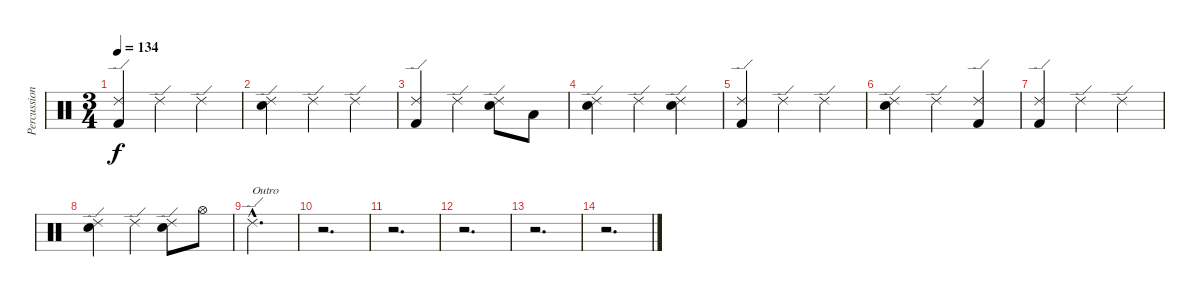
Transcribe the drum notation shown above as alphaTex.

\track ("Percussion" "Percussion") {instrument percussion}
\staff {score}
\articulation defaults
\ts (3 4)
\tempo 134
\clef neutral
\ks c
("Kick (hit) 2" "Ride (edge) 2").4{dy f} "Ride (edge) 2".4 "Ride (edge) 2".4 |
("Snare (hit) 2" "Ride (edge) 2").4 "Ride (edge) 2".4 "Ride (edge) 2".4 |
("Kick (hit) 2" "Ride (edge) 2").4 "Ride (edge) 2".4 ("Snare (hit) 2" "Ride (edge) 2").8 "Low Tom (hit)".8 |
("Snare (hit) 2" "Ride (edge) 2").4 "Ride (edge) 2".4 ("Snare (hit) 2" "Ride (edge) 2").4 |
("Kick (hit) 2" "Ride (edge) 2").4 "Ride (edge) 2".4 "Ride (edge) 2".4 |
("Snare (hit) 2" "Ride (edge) 2").4 "Ride (edge) 2".4 ("Kick (hit) 2" "Ride (edge) 2").4 |
("Kick (hit) 2" "Ride (edge) 2").4 "Ride (edge) 2".4 "Ride (edge) 2".4 |
("Snare (hit) 2" "Ride (edge) 2").4 "Ride (edge) 2".4 ("Snare (hit) 2" "Ride (edge) 2").8 "Hi-Hat (open)".8 |
"Ride (edge) 2"{hac}.2{d txt "Outro"} |
r.2{d} |
r.2{d} |
r.2{d} |
r.2{d} |
r.2{d}
